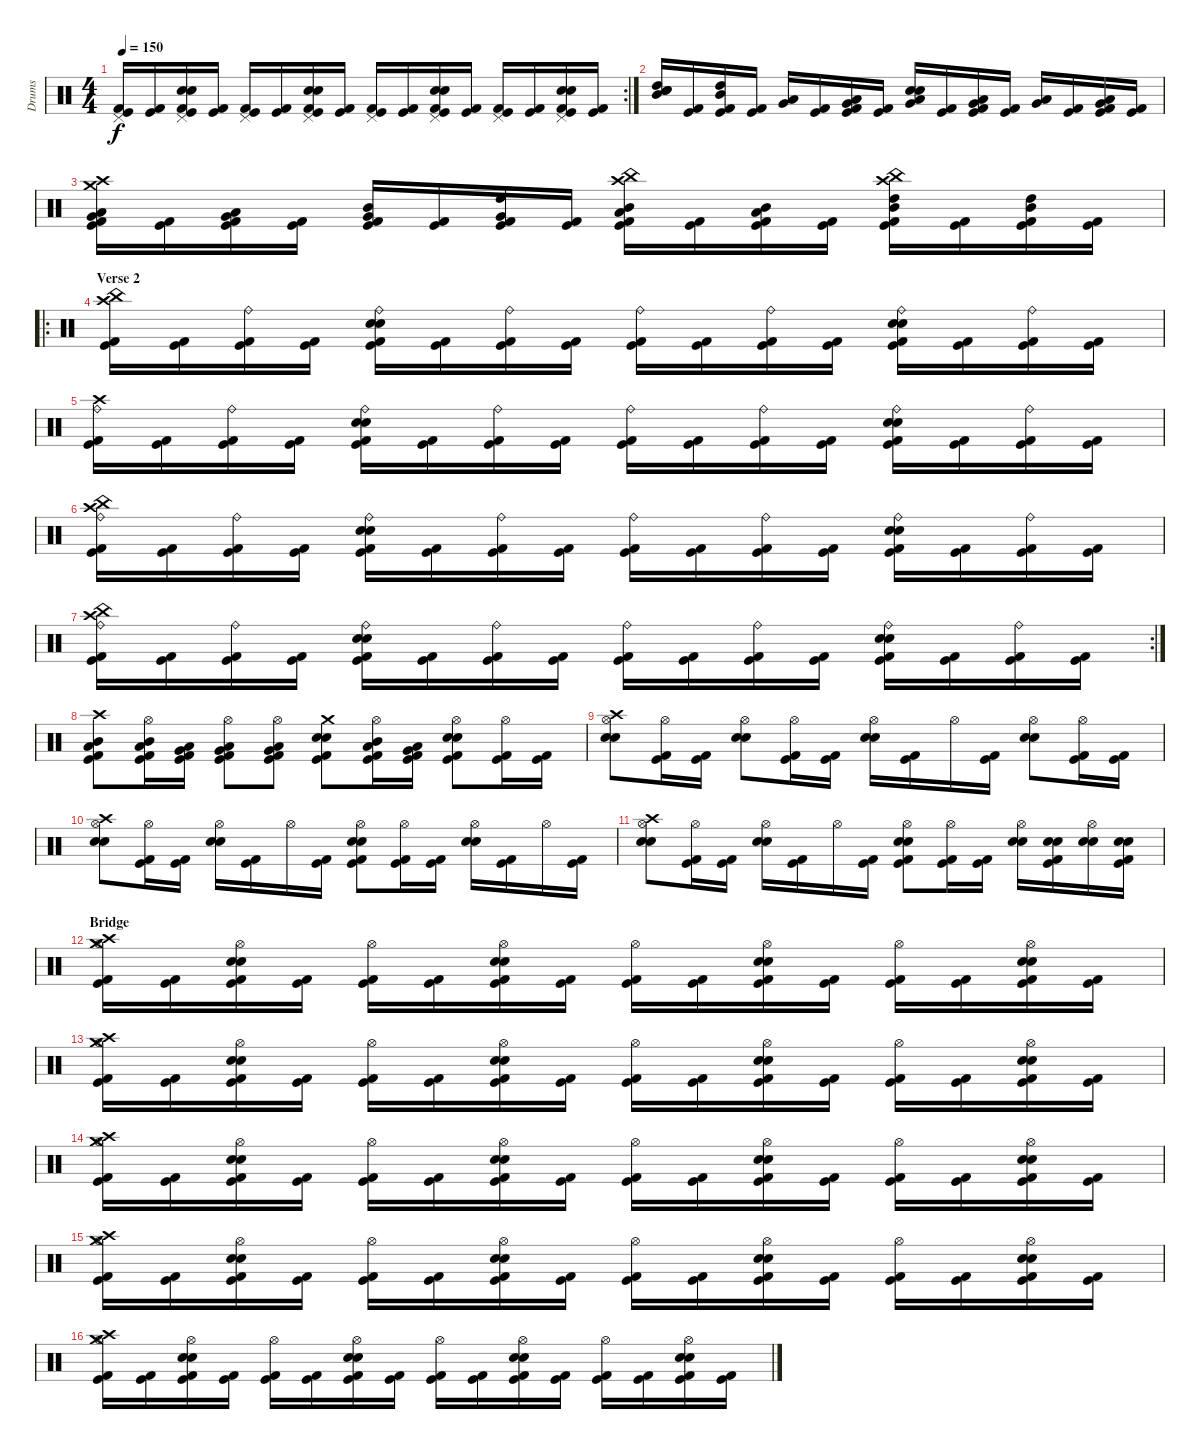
\track ("Drums" "Drums") {instrument percussion}
\staff {score}
\articulation defaults
\rc 2
\ts (4 4)
\tempo 150
\clef neutral
\ks c
("Pedal Hi-Hat (hit)" "Kick (hit) 2" "Kick (hit)").16{dy f} ("Kick (hit) 2" "Kick (hit)").16 ("Pedal Hi-Hat (hit)" "Electric Snare (hit)" "Snare (hit) 2" "Kick (hit) 2" "Kick (hit)").16 ("Kick (hit) 2" "Kick (hit)").16 ("Pedal Hi-Hat (hit)" "Kick (hit) 2" "Kick (hit)").16 ("Kick (hit) 2" "Kick (hit)").16 ("Pedal Hi-Hat (hit)" "Electric Snare (hit)" "Snare (hit) 2" "Kick (hit) 2" "Kick (hit)").16 ("Kick (hit) 2" "Kick (hit)").16 ("Pedal Hi-Hat (hit)" "Kick (hit) 2" "Kick (hit)").16 ("Kick (hit) 2" "Kick (hit)").16 ("Pedal Hi-Hat (hit)" "Electric Snare (hit)" "Snare (hit) 2" "Kick (hit) 2" "Kick (hit)").16 ("Kick (hit) 2" "Kick (hit)").16 ("Pedal Hi-Hat (hit)" "Kick (hit) 2" "Kick (hit)").16 ("Kick (hit) 2" "Kick (hit)").16 ("Pedal Hi-Hat (hit)" "Electric Snare (hit)" "Snare (hit) 2" "Kick (hit) 2" "Kick (hit)").16 ("Kick (hit) 2" "Kick (hit)").16 |
("Snare (hit) 2" "Electric Snare (hit)" "Mid Tom (hit)" "High Tom (hit)").16 ("Kick (hit) 2" "Kick (hit)").16 ("Mid Tom (hit)" "High Tom (hit)" "Kick (hit) 2" "Kick (hit)").16 ("Kick (hit) 2" "Kick (hit)").16 ("Very Low Tom (hit)" "Low Tom (hit)").16 ("Kick (hit) 2" "Kick (hit)").16 ("Very Low Tom (hit)" "Low Tom (hit)" "Kick (hit) 2" "Kick (hit)").16 ("Kick (hit) 2" "Kick (hit)").16 ("Snare (hit) 2" "Electric Snare (hit)" "Very Low Tom (hit)" "Low Floor Tom (hit)").16 ("Kick (hit) 2" "Kick (hit)").16 ("Very Low Tom (hit)" "Low Floor Tom (hit)" "Kick (hit) 2" "Kick (hit)").16 ("Kick (hit) 2" "Kick (hit)").16 ("Low Tom (hit)" "Very Low Tom (hit)").16 ("Kick (hit) 2" "Kick (hit)").16 ("Low Tom (hit)" "Very Low Tom (hit)" "Kick (hit) 2" "Kick (hit)").16 ("Kick (hit) 2" "Kick (hit)").16 |
("Crash medium (hit)" "Crash high (hit)" "Low Tom (hit)" "Very Low Tom (hit)" "Kick (hit)" "Kick (hit) 2").16 ("Kick (hit)" "Kick (hit) 2").16 ("Low Tom (hit)" "Very Low Tom (hit)" "Kick (hit)" "Kick (hit) 2").16 ("Kick (hit)" "Kick (hit) 2").16 ("Mid Tom (hit)" "Very Low Tom (hit)" "Kick (hit)" "Kick (hit) 2").16 ("Kick (hit)" "Kick (hit) 2").16 ("High Tom (hit)" "Very Low Tom (hit)" "Kick (hit)" "Kick (hit) 2").16 ("Kick (hit)" "Kick (hit) 2").16 ("China (hit)" "Crash high (hit)" "Mid Tom (hit)" "Low Tom (hit)" "Kick (hit)" "Kick (hit) 2").16 ("Kick (hit)" "Kick (hit) 2").16 ("Mid Tom (hit)" "Low Tom (hit)" "Kick (hit)" "Kick (hit) 2").16 ("Kick (hit)" "Kick (hit) 2").16 ("China (hit)" "Crash high (hit)" "High Tom (hit)" "Mid Tom (hit)" "Kick (hit)" "Kick (hit) 2").16 ("Kick (hit)" "Kick (hit) 2").16 ("Mid Tom (hit)" "High Tom (hit)" "Kick (hit)" "Kick (hit) 2").16 ("Kick (hit)" "Kick (hit) 2").16 |
\ro
\section ("" "Verse 2")
("Crash high (hit)" "China (hit)" "Kick (hit)" "Kick (hit) 2").16 ("Kick (hit) 2" "Kick (hit)").16 ("Ride (bell)" "Kick (hit) 2" "Kick (hit)").16 ("Kick (hit) 2" "Kick (hit)").16 ("Ride (bell)" "Snare (hit) 2" "Electric Snare (hit)" "Kick (hit) 2" "Kick (hit)").16 ("Kick (hit) 2" "Kick (hit)").16 ("Ride (bell)" "Kick (hit) 2" "Kick (hit)").16 ("Kick (hit) 2" "Kick (hit)").16 ("Ride (bell)" "Kick (hit) 2" "Kick (hit)").16 ("Kick (hit) 2" "Kick (hit)").16 ("Ride (bell)" "Kick (hit) 2" "Kick (hit)").16 ("Kick (hit) 2" "Kick (hit)").16 ("Ride (bell)" "Snare (hit) 2" "Electric Snare (hit)" "Kick (hit) 2" "Kick (hit)").16 ("Kick (hit) 2" "Kick (hit)").16 ("Ride (bell)" "Kick (hit) 2" "Kick (hit)").16 ("Kick (hit) 2" "Kick (hit)").16 |
("Crash high (hit)" "Ride (bell)" "Kick (hit)" "Kick (hit) 2").16 ("Kick (hit) 2" "Kick (hit)").16 ("Ride (bell)" "Kick (hit) 2" "Kick (hit)").16 ("Kick (hit) 2" "Kick (hit)").16 ("Ride (bell)" "Snare (hit) 2" "Electric Snare (hit)" "Kick (hit) 2" "Kick (hit)").16 ("Kick (hit) 2" "Kick (hit)").16 ("Ride (bell)" "Kick (hit) 2" "Kick (hit)").16 ("Kick (hit) 2" "Kick (hit)").16 ("Ride (bell)" "Kick (hit) 2" "Kick (hit)").16 ("Kick (hit) 2" "Kick (hit)").16 ("Ride (bell)" "Kick (hit) 2" "Kick (hit)").16 ("Kick (hit) 2" "Kick (hit)").16 ("Ride (bell)" "Snare (hit) 2" "Electric Snare (hit)" "Kick (hit) 2" "Kick (hit)").16 ("Kick (hit) 2" "Kick (hit)").16 ("Ride (bell)" "Kick (hit) 2" "Kick (hit)").16 ("Kick (hit) 2" "Kick (hit)").16 |
("Crash high (hit)" "China (hit)" "Ride (bell)" "Kick (hit)" "Kick (hit) 2").16 ("Kick (hit) 2" "Kick (hit)").16 ("Ride (bell)" "Kick (hit) 2" "Kick (hit)").16 ("Kick (hit) 2" "Kick (hit)").16 ("Ride (bell)" "Snare (hit) 2" "Electric Snare (hit)" "Kick (hit) 2" "Kick (hit)").16 ("Kick (hit) 2" "Kick (hit)").16 ("Ride (bell)" "Kick (hit) 2" "Kick (hit)").16 ("Kick (hit) 2" "Kick (hit)").16 ("Ride (bell)" "Kick (hit) 2" "Kick (hit)").16 ("Kick (hit) 2" "Kick (hit)").16 ("Ride (bell)" "Kick (hit) 2" "Kick (hit)").16 ("Kick (hit) 2" "Kick (hit)").16 ("Ride (bell)" "Snare (hit) 2" "Electric Snare (hit)" "Kick (hit) 2" "Kick (hit)").16 ("Kick (hit) 2" "Kick (hit)").16 ("Ride (bell)" "Kick (hit) 2" "Kick (hit)").16 ("Kick (hit) 2" "Kick (hit)").16 |
\rc 2
("Crash high (hit)" "China (hit)" "Ride (bell)" "Kick (hit)" "Kick (hit) 2").16 ("Kick (hit) 2" "Kick (hit)").16 ("Ride (bell)" "Kick (hit) 2" "Kick (hit)").16 ("Kick (hit) 2" "Kick (hit)").16 ("Ride (bell)" "Snare (hit) 2" "Electric Snare (hit)" "Kick (hit) 2" "Kick (hit)").16 ("Kick (hit) 2" "Kick (hit)").16 ("Ride (bell)" "Kick (hit) 2" "Kick (hit)").16 ("Kick (hit) 2" "Kick (hit)").16 ("Ride (bell)" "Kick (hit) 2" "Kick (hit)").16 ("Kick (hit) 2" "Kick (hit)").16 ("Ride (bell)" "Kick (hit) 2" "Kick (hit)").16 ("Kick (hit) 2" "Kick (hit)").16 ("Ride (bell)" "Snare (hit) 2" "Electric Snare (hit)" "Kick (hit) 2" "Kick (hit)").16 ("Kick (hit) 2" "Kick (hit)").16 ("Ride (bell)" "Kick (hit) 2" "Kick (hit)").16 ("Kick (hit) 2" "Kick (hit)").16 |
("Crash high (hit)" "Mid Tom (hit)" "Low Tom (hit)" "Kick (hit) 2" "Kick (hit)").8 ("Hi-Hat (open)" "Mid Tom (hit)" "Low Tom (hit)" "Kick (hit) 2" "Kick (hit)").16 ("Very Low Tom (hit)" "Low Tom (hit)" "Kick (hit) 2" "Kick (hit)").16 ("Hi-Hat (open)" "Low Floor Tom (hit)" "Very Low Tom (hit)" "Kick (hit) 2" "Kick (hit)").8 ("Hi-Hat (open)" "Low Floor Tom (hit)" "Very Low Tom (hit)" "Kick (hit) 2" "Kick (hit)").8 ("Crash medium (hit)" "Electric Snare (hit)" "Snare (hit) 2" "Kick (hit)" "Kick (hit) 2").8 ("Hi-Hat (open)" "Mid Tom (hit)" "Low Tom (hit)" "Kick (hit)" "Kick (hit) 2").16 ("Very Low Tom (hit)" "Low Tom (hit)" "Kick (hit)" "Kick (hit) 2").16 ("Hi-Hat (open)" "Electric Snare (hit)" "Snare (hit) 2" "Kick (hit)" "Kick (hit) 2").8 ("Hi-Hat (open)" "Kick (hit)" "Kick (hit) 2").16 ("Kick (hit)" "Kick (hit) 2").16 |
("Crash high (hit)" "Hi-Hat (open)" "Electric Snare (hit)" "Snare (hit) 2").8 ("Hi-Hat (open)" "Kick (hit) 2" "Kick (hit)").16 ("Kick (hit) 2" "Kick (hit)").16 ("Hi-Hat (open)" "Electric Snare (hit)" "Snare (hit) 2").8 ("Hi-Hat (open)" "Kick (hit)" "Kick (hit) 2").16 ("Kick (hit)" "Kick (hit) 2").16 ("Hi-Hat (open)" "Electric Snare (hit)" "Snare (hit) 2").16 ("Kick (hit) 2" "Kick (hit)").16 "Hi-Hat (open)".16 ("Kick (hit) 2" "Kick (hit)").16 ("Hi-Hat (open)" "Electric Snare (hit)" "Snare (hit) 2").8 ("Hi-Hat (open)" "Kick (hit)" "Kick (hit) 2").16 ("Kick (hit) 2" "Kick (hit)").16 |
("Crash high (hit)" "Hi-Hat (open)" "Electric Snare (hit)" "Snare (hit) 2").8 ("Hi-Hat (open)" "Kick (hit) 2" "Kick (hit)").16 ("Kick (hit) 2" "Kick (hit)").16 ("Hi-Hat (open)" "Electric Snare (hit)" "Snare (hit) 2").16 ("Kick (hit) 2" "Kick (hit)").16 "Hi-Hat (open)".16 ("Kick (hit)" "Kick (hit) 2").16 ("Hi-Hat (open)" "Snare (hit) 2" "Electric Snare (hit)" "Kick (hit)" "Kick (hit) 2").8 ("Hi-Hat (open)" "Kick (hit) 2" "Kick (hit)").16 ("Kick (hit) 2" "Kick (hit)").16 ("Hi-Hat (open)" "Electric Snare (hit)" "Snare (hit) 2").16 ("Kick (hit)" "Kick (hit) 2").16 "Hi-Hat (open)".16 ("Kick (hit)" "Kick (hit) 2").16 |
("Crash high (hit)" "Hi-Hat (open)" "Electric Snare (hit)" "Snare (hit) 2").8 ("Hi-Hat (open)" "Kick (hit) 2" "Kick (hit)").16 ("Kick (hit) 2" "Kick (hit)").16 ("Hi-Hat (open)" "Electric Snare (hit)" "Snare (hit) 2").16 ("Kick (hit) 2" "Kick (hit)").16 "Hi-Hat (open)".16 ("Kick (hit)" "Kick (hit) 2").16 ("Hi-Hat (open)" "Snare (hit) 2" "Electric Snare (hit)" "Kick (hit)" "Kick (hit) 2").8 ("Hi-Hat (open)" "Kick (hit) 2" "Kick (hit)").16 ("Kick (hit) 2" "Kick (hit)").16 ("Hi-Hat (open)" "Electric Snare (hit)" "Snare (hit) 2").16 ("Electric Snare (hit)" "Snare (hit) 2" "Kick (hit)" "Kick (hit) 2").16 ("Hi-Hat (open)" "Electric Snare (hit)" "Snare (hit) 2").16 ("Electric Snare (hit)" "Snare (hit) 2" "Kick (hit)" "Kick (hit) 2").16 |
\section ("" "Bridge")
("Crash high (hit)" "Hi-Hat (open)" "Crash medium (hit)" "Kick (hit)" "Kick (hit) 2").16 ("Kick (hit)" "Kick (hit) 2").16 ("Hi-Hat (open)" "Electric Snare (hit)" "Snare (hit) 2" "Kick (hit)" "Kick (hit) 2").16 ("Kick (hit)" "Kick (hit) 2").16 ("Hi-Hat (open)" "Kick (hit)" "Kick (hit) 2").16 ("Kick (hit)" "Kick (hit) 2").16 ("Hi-Hat (open)" "Electric Snare (hit)" "Snare (hit) 2" "Kick (hit)" "Kick (hit) 2").16 ("Kick (hit)" "Kick (hit) 2").16 ("Hi-Hat (open)" "Kick (hit)" "Kick (hit) 2").16 ("Kick (hit)" "Kick (hit) 2").16 ("Hi-Hat (open)" "Electric Snare (hit)" "Snare (hit) 2" "Kick (hit)" "Kick (hit) 2").16 ("Kick (hit)" "Kick (hit) 2").16 ("Hi-Hat (open)" "Kick (hit)" "Kick (hit) 2").16 ("Kick (hit)" "Kick (hit) 2").16 ("Hi-Hat (open)" "Electric Snare (hit)" "Snare (hit) 2" "Kick (hit)" "Kick (hit) 2").16 ("Kick (hit)" "Kick (hit) 2").16 |
("Crash high (hit)" "Hi-Hat (open)" "Crash medium (hit)" "Kick (hit)" "Kick (hit) 2").16 ("Kick (hit)" "Kick (hit) 2").16 ("Hi-Hat (open)" "Electric Snare (hit)" "Snare (hit) 2" "Kick (hit)" "Kick (hit) 2").16 ("Kick (hit)" "Kick (hit) 2").16 ("Hi-Hat (open)" "Kick (hit)" "Kick (hit) 2").16 ("Kick (hit)" "Kick (hit) 2").16 ("Hi-Hat (open)" "Electric Snare (hit)" "Snare (hit) 2" "Kick (hit)" "Kick (hit) 2").16 ("Kick (hit)" "Kick (hit) 2").16 ("Hi-Hat (open)" "Kick (hit)" "Kick (hit) 2").16 ("Kick (hit)" "Kick (hit) 2").16 ("Hi-Hat (open)" "Electric Snare (hit)" "Snare (hit) 2" "Kick (hit)" "Kick (hit) 2").16 ("Kick (hit)" "Kick (hit) 2").16 ("Hi-Hat (open)" "Kick (hit)" "Kick (hit) 2").16 ("Kick (hit)" "Kick (hit) 2").16 ("Hi-Hat (open)" "Electric Snare (hit)" "Snare (hit) 2" "Kick (hit)" "Kick (hit) 2").16 ("Kick (hit)" "Kick (hit) 2").16 |
("Crash high (hit)" "Hi-Hat (open)" "Crash medium (hit)" "Kick (hit)" "Kick (hit) 2").16 ("Kick (hit)" "Kick (hit) 2").16 ("Hi-Hat (open)" "Electric Snare (hit)" "Snare (hit) 2" "Kick (hit)" "Kick (hit) 2").16 ("Kick (hit)" "Kick (hit) 2").16 ("Hi-Hat (open)" "Kick (hit)" "Kick (hit) 2").16 ("Kick (hit)" "Kick (hit) 2").16 ("Hi-Hat (open)" "Electric Snare (hit)" "Snare (hit) 2" "Kick (hit)" "Kick (hit) 2").16 ("Kick (hit)" "Kick (hit) 2").16 ("Hi-Hat (open)" "Kick (hit)" "Kick (hit) 2").16 ("Kick (hit)" "Kick (hit) 2").16 ("Hi-Hat (open)" "Electric Snare (hit)" "Snare (hit) 2" "Kick (hit)" "Kick (hit) 2").16 ("Kick (hit)" "Kick (hit) 2").16 ("Hi-Hat (open)" "Kick (hit)" "Kick (hit) 2").16 ("Kick (hit)" "Kick (hit) 2").16 ("Hi-Hat (open)" "Electric Snare (hit)" "Snare (hit) 2" "Kick (hit)" "Kick (hit) 2").16 ("Kick (hit)" "Kick (hit) 2").16 |
("Crash high (hit)" "Hi-Hat (open)" "Crash medium (hit)" "Kick (hit)" "Kick (hit) 2").16 ("Kick (hit)" "Kick (hit) 2").16 ("Hi-Hat (open)" "Electric Snare (hit)" "Snare (hit) 2" "Kick (hit)" "Kick (hit) 2").16 ("Kick (hit)" "Kick (hit) 2").16 ("Hi-Hat (open)" "Kick (hit)" "Kick (hit) 2").16 ("Kick (hit)" "Kick (hit) 2").16 ("Hi-Hat (open)" "Electric Snare (hit)" "Snare (hit) 2" "Kick (hit)" "Kick (hit) 2").16 ("Kick (hit)" "Kick (hit) 2").16 ("Hi-Hat (open)" "Kick (hit)" "Kick (hit) 2").16 ("Kick (hit)" "Kick (hit) 2").16 ("Hi-Hat (open)" "Electric Snare (hit)" "Snare (hit) 2" "Kick (hit)" "Kick (hit) 2").16 ("Kick (hit)" "Kick (hit) 2").16 ("Hi-Hat (open)" "Kick (hit)" "Kick (hit) 2").16 ("Kick (hit)" "Kick (hit) 2").16 ("Hi-Hat (open)" "Electric Snare (hit)" "Snare (hit) 2" "Kick (hit)" "Kick (hit) 2").16 ("Kick (hit)" "Kick (hit) 2").16 |
("Crash high (hit)" "Hi-Hat (open)" "Crash medium (hit)" "Kick (hit)" "Kick (hit) 2").16 ("Kick (hit)" "Kick (hit) 2").16 ("Hi-Hat (open)" "Electric Snare (hit)" "Snare (hit) 2" "Kick (hit)" "Kick (hit) 2").16 ("Kick (hit)" "Kick (hit) 2").16 ("Hi-Hat (open)" "Kick (hit)" "Kick (hit) 2").16 ("Kick (hit)" "Kick (hit) 2").16 ("Hi-Hat (open)" "Electric Snare (hit)" "Snare (hit) 2" "Kick (hit)" "Kick (hit) 2").16 ("Kick (hit)" "Kick (hit) 2").16 ("Hi-Hat (open)" "Kick (hit)" "Kick (hit) 2").16 ("Kick (hit)" "Kick (hit) 2").16 ("Hi-Hat (open)" "Electric Snare (hit)" "Snare (hit) 2" "Kick (hit)" "Kick (hit) 2").16 ("Kick (hit)" "Kick (hit) 2").16 ("Hi-Hat (open)" "Kick (hit)" "Kick (hit) 2").16 ("Kick (hit)" "Kick (hit) 2").16 ("Hi-Hat (open)" "Electric Snare (hit)" "Snare (hit) 2" "Kick (hit)" "Kick (hit) 2").16 ("Kick (hit)" "Kick (hit) 2").16
